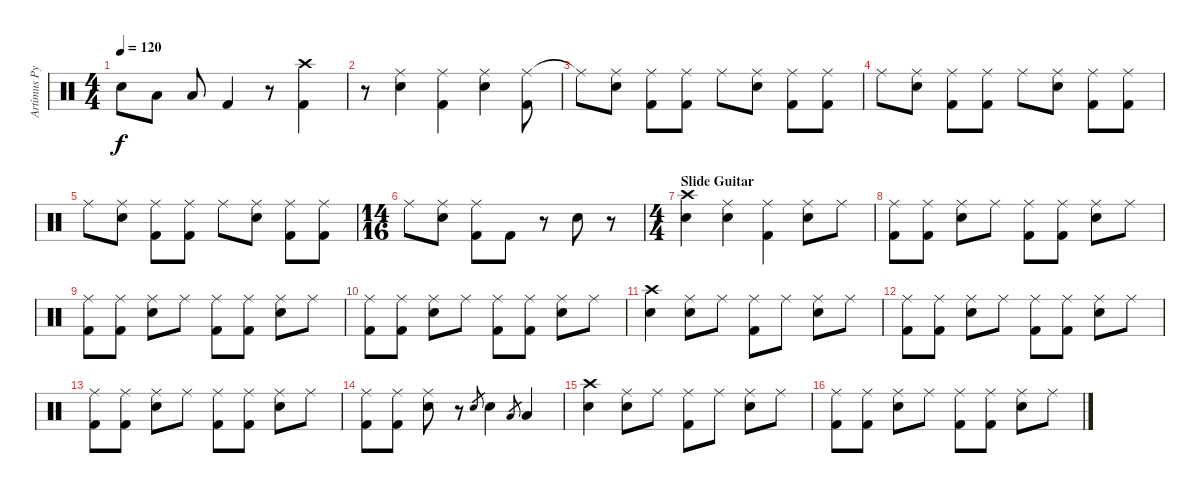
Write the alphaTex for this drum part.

\track ("Artimus Pyle" "Artimus Py") {instrument percussion}
\staff {score}
\articulation defaults
\ts (4 4)
\tempo 120
\clef neutral
\ks c "Electric Snare (hit)".8{dy f} "Low Tom (hit)".8 "Low Tom (hit)".8 "Kick (hit) 2".4
r.8 ("Crash high (hit)" "Kick (hit) 2").4 |
r.8 ("Ride (middle)" "Electric Snare (hit)").4 ("Ride (middle)" "Kick (hit) 2").4 ("Ride (middle)" "Electric Snare (hit)").4 ("Ride (middle)" "Kick (hit) 2").8 |
"Ride (middle)"{t}.8 ("Ride (middle)" "Electric Snare (hit)").8 ("Ride (middle)" "Kick (hit) 2").8 ("Ride (middle)" "Kick (hit) 2").8 "Ride (middle)".8 ("Ride (middle)" "Electric Snare (hit)").8 ("Ride (middle)" "Kick (hit) 2").8 ("Ride (middle)" "Kick (hit) 2").8 |
"Ride (middle)".8 ("Ride (middle)" "Electric Snare (hit)").8 ("Ride (middle)" "Kick (hit) 2").8 ("Ride (middle)" "Kick (hit) 2").8 "Ride (middle)".8 ("Ride (middle)" "Electric Snare (hit)").8 ("Ride (middle)" "Kick (hit) 2").8 ("Ride (middle)" "Kick (hit) 2").8 |
"Ride (middle)".8 ("Ride (middle)" "Electric Snare (hit)").8 ("Ride (middle)" "Kick (hit) 2").8 ("Ride (middle)" "Kick (hit) 2").8 "Ride (middle)".8 ("Ride (middle)" "Electric Snare (hit)").8 ("Ride (middle)" "Kick (hit) 2").8 ("Ride (middle)" "Kick (hit) 2").8 |
\ts (14 16)
"Ride (middle)".8 ("Ride (middle)" "Electric Snare (hit)").8 ("Ride (middle)" "Kick (hit) 2").8 "Kick (hit) 2".8 r.8 "Electric Snare (hit)".8 r.8 |
\ts (4 4)
\section ("" "Slide Guitar")
("Crash high (hit)" "Electric Snare (hit)").4 ("Ride (middle)" "Electric Snare (hit)").4 ("Ride (middle)" "Kick (hit) 2").4 ("Ride (middle)" "Electric Snare (hit)").8 "Ride (middle)".8 |
("Ride (middle)" "Kick (hit) 2").8 ("Ride (middle)" "Kick (hit) 2").8 ("Ride (middle)" "Electric Snare (hit)").8 "Ride (middle)".8 ("Ride (middle)" "Kick (hit) 2").8 ("Ride (middle)" "Kick (hit) 2").8 ("Ride (middle)" "Electric Snare (hit)").8 "Ride (middle)".8 |
("Ride (middle)" "Kick (hit) 2").8 ("Ride (middle)" "Kick (hit) 2").8 ("Ride (middle)" "Electric Snare (hit)").8 "Ride (middle)".8 ("Ride (middle)" "Kick (hit) 2").8 ("Ride (middle)" "Kick (hit) 2").8 ("Ride (middle)" "Electric Snare (hit)").8 "Ride (middle)".8 |
("Ride (middle)" "Kick (hit) 2").8 ("Ride (middle)" "Kick (hit) 2").8 ("Ride (middle)" "Electric Snare (hit)").8 "Ride (middle)".8 ("Ride (middle)" "Kick (hit) 2").8 ("Ride (middle)" "Kick (hit) 2").8 ("Ride (middle)" "Electric Snare (hit)").8 "Ride (middle)".8 |
("Crash high (hit)" "Electric Snare (hit)").4 ("Ride (middle)" "Electric Snare (hit)").8 "Ride (middle)".8 ("Ride (middle)" "Kick (hit) 2").8 "Ride (middle)".8 ("Ride (middle)" "Electric Snare (hit)").8 "Ride (middle)".8 |
("Ride (middle)" "Kick (hit) 2").8 ("Ride (middle)" "Kick (hit) 2").8 ("Ride (middle)" "Electric Snare (hit)").8 "Ride (middle)".8 ("Ride (middle)" "Kick (hit) 2").8 ("Ride (middle)" "Kick (hit) 2").8 ("Ride (middle)" "Electric Snare (hit)").8 "Ride (middle)".8 |
("Ride (middle)" "Kick (hit) 2").8 ("Ride (middle)" "Kick (hit) 2").8 ("Ride (middle)" "Electric Snare (hit)").8 "Ride (middle)".8 ("Ride (middle)" "Kick (hit) 2").8 ("Ride (middle)" "Kick (hit) 2").8 ("Ride (middle)" "Electric Snare (hit)").8 "Ride (middle)".8 |
("Ride (middle)" "Kick (hit) 2").8 ("Ride (middle)" "Kick (hit) 2").8 ("Ride (middle)" "Electric Snare (hit)").8 r.8 "Electric Snare (hit)".8{gr} "Electric Snare (hit)".4 "Low Tom (hit)".8{gr} "Low Tom (hit)".4 |
("Crash high (hit)" "Electric Snare (hit)").4 ("Ride (middle)" "Electric Snare (hit)").8 "Ride (middle)".8 ("Ride (middle)" "Kick (hit) 2").8 "Ride (middle)".8 ("Ride (middle)" "Electric Snare (hit)").8 "Ride (middle)".8 |
("Ride (middle)" "Kick (hit) 2").8 ("Ride (middle)" "Kick (hit) 2").8 ("Ride (middle)" "Electric Snare (hit)").8 "Ride (middle)".8 ("Ride (middle)" "Kick (hit) 2").8 ("Ride (middle)" "Kick (hit) 2").8 ("Ride (middle)" "Electric Snare (hit)").8 "Ride (middle)".8
